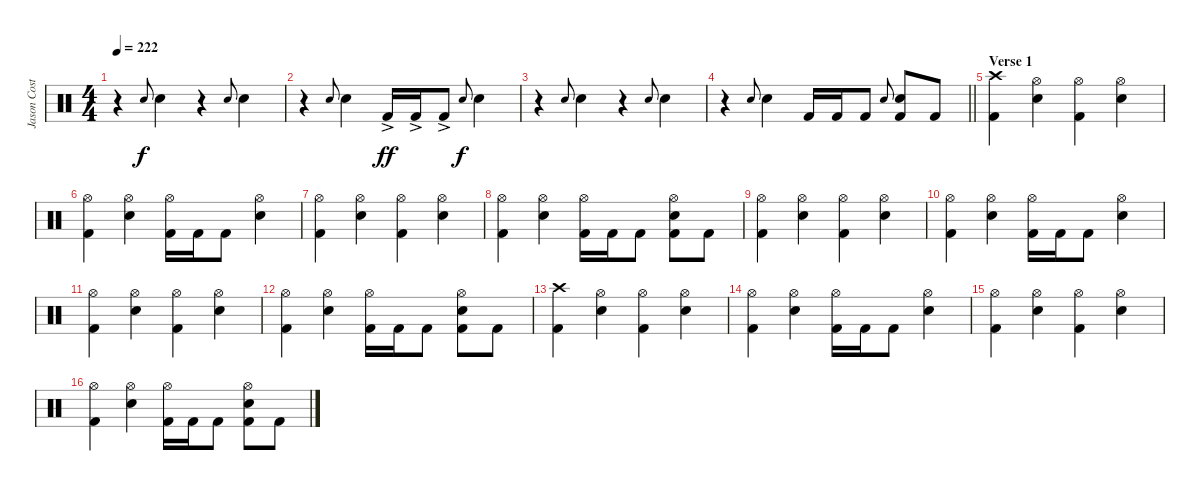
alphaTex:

\track ("Jason Costa" "Jason Cost") {instrument percussion}
\staff {score}
\articulation defaults
\ts (4 4)
\tempo 222
\clef neutral
\ks c
r.4{dy ff} "Electric Snare (hit)".8{gr onbeat dy f} "Electric Snare (hit)".4 r.4 "Electric Snare (hit)".8{gr onbeat} "Electric Snare (hit)".4 |
r.4 "Electric Snare (hit)".8{gr onbeat} "Electric Snare (hit)".4 "Kick (hit) 2"{ac}.16{dy ff} "Kick (hit) 2"{ac}.16 "Kick (hit) 2"{ac}.8 "Electric Snare (hit)".8{gr onbeat dy f} "Electric Snare (hit)".4 |
r.4 "Electric Snare (hit)".8{gr onbeat} "Electric Snare (hit)".4 r.4 "Electric Snare (hit)".8{gr onbeat} "Electric Snare (hit)".4 |
\barLineRight lightlight
r.4 "Electric Snare (hit)".8{gr onbeat} "Electric Snare (hit)".4 "Kick (hit) 2".16 "Kick (hit) 2".16 "Kick (hit) 2".8 "Electric Snare (hit)".8{gr onbeat} ("Electric Snare (hit)" "Kick (hit) 2").8 "Kick (hit) 2".8 |
\section ("" "Verse 1")
("Crash high (hit)" "Kick (hit) 2").4 ("Hi-Hat (open)" "Electric Snare (hit)").4 ("Hi-Hat (open)" "Kick (hit) 2").4 ("Hi-Hat (open)" "Electric Snare (hit)").4 |
("Hi-Hat (open)" "Kick (hit) 2").4 ("Hi-Hat (open)" "Electric Snare (hit)").4 ("Hi-Hat (open)" "Kick (hit) 2").16 "Kick (hit) 2".16 "Kick (hit) 2".8 ("Hi-Hat (open)" "Electric Snare (hit)").4 |
("Hi-Hat (open)" "Kick (hit) 2").4 ("Hi-Hat (open)" "Electric Snare (hit)").4 ("Hi-Hat (open)" "Kick (hit) 2").4 ("Hi-Hat (open)" "Electric Snare (hit)").4 |
("Hi-Hat (open)" "Kick (hit) 2").4 ("Hi-Hat (open)" "Electric Snare (hit)").4 ("Hi-Hat (open)" "Kick (hit) 2").16 "Kick (hit) 2".16 "Kick (hit) 2".8 ("Hi-Hat (open)" "Electric Snare (hit)" "Kick (hit) 2").8 "Kick (hit) 2".8 |
("Hi-Hat (open)" "Kick (hit) 2").4 ("Hi-Hat (open)" "Electric Snare (hit)").4 ("Hi-Hat (open)" "Kick (hit) 2").4 ("Hi-Hat (open)" "Electric Snare (hit)").4 |
("Hi-Hat (open)" "Kick (hit) 2").4 ("Hi-Hat (open)" "Electric Snare (hit)").4 ("Hi-Hat (open)" "Kick (hit) 2").16 "Kick (hit) 2".16 "Kick (hit) 2".8 ("Hi-Hat (open)" "Electric Snare (hit)").4 |
("Hi-Hat (open)" "Kick (hit) 2").4 ("Hi-Hat (open)" "Electric Snare (hit)").4 ("Hi-Hat (open)" "Kick (hit) 2").4 ("Hi-Hat (open)" "Electric Snare (hit)").4 |
("Hi-Hat (open)" "Kick (hit) 2").4 ("Hi-Hat (open)" "Electric Snare (hit)").4 ("Hi-Hat (open)" "Kick (hit) 2").16 "Kick (hit) 2".16 "Kick (hit) 2".8 ("Hi-Hat (open)" "Electric Snare (hit)" "Kick (hit) 2").8 "Kick (hit) 2".8 |
("Crash high (hit)" "Kick (hit) 2").4 ("Hi-Hat (open)" "Electric Snare (hit)").4 ("Hi-Hat (open)" "Kick (hit) 2").4 ("Hi-Hat (open)" "Electric Snare (hit)").4 |
("Hi-Hat (open)" "Kick (hit) 2").4 ("Hi-Hat (open)" "Electric Snare (hit)").4 ("Hi-Hat (open)" "Kick (hit) 2").16 "Kick (hit) 2".16 "Kick (hit) 2".8 ("Hi-Hat (open)" "Electric Snare (hit)").4 |
("Hi-Hat (open)" "Kick (hit) 2").4 ("Hi-Hat (open)" "Electric Snare (hit)").4 ("Hi-Hat (open)" "Kick (hit) 2").4 ("Hi-Hat (open)" "Electric Snare (hit)").4 |
("Hi-Hat (open)" "Kick (hit) 2").4 ("Hi-Hat (open)" "Electric Snare (hit)").4 ("Hi-Hat (open)" "Kick (hit) 2").16 "Kick (hit) 2".16 "Kick (hit) 2".8 ("Hi-Hat (open)" "Electric Snare (hit)" "Kick (hit) 2").8 "Kick (hit) 2".8
